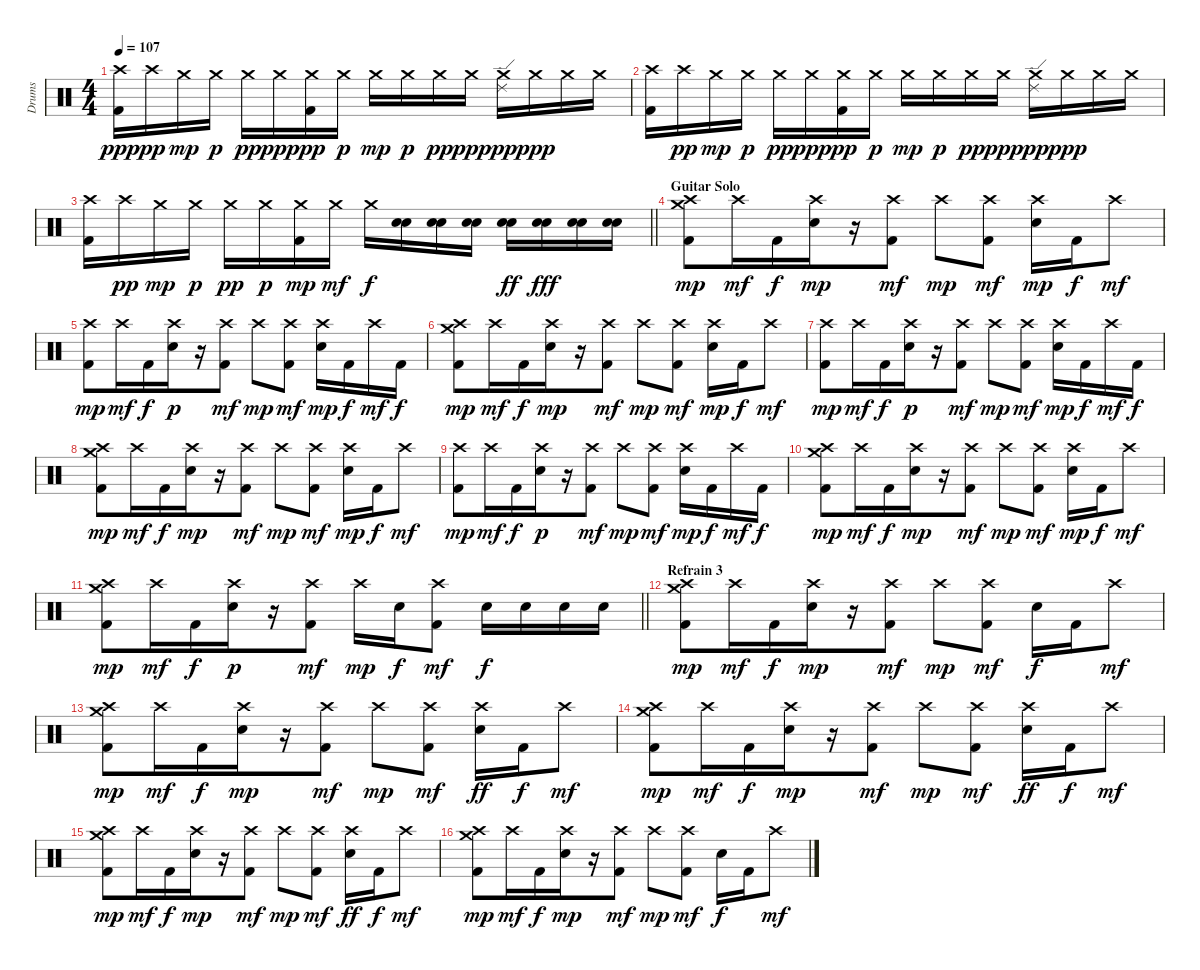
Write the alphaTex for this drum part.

\track ("Drums" "Drums") {instrument percussion}
\staff {score}
\articulation defaults
\ts (4 4)
\tempo 107
\clef neutral
\ks c
("Crash high (hit)" "Kick (hit) 2").16{dy ppp} "Crash high (hit)".16{dy pp} "Crash medium (hit)".16{dy mp} "Crash medium (hit)".16{dy p} "Crash medium (hit)".16{dy pp} "Crash medium (hit)".16{dy ppp} ("Crash medium (hit)" "Kick (hit) 2").16{dy pp} "Crash medium (hit)".16{dy p} "Crash medium (hit)".16{dy mp} "Crash medium (hit)".16{dy p} "Crash medium (hit)".16{dy pp} "Crash medium (hit)".16{dy ppp} ("Crash medium (hit)" "Ride (edge) 2").16{dy pp} "Crash medium (hit)".16{dy ppp} "Crash medium (hit)".16 "Crash medium (hit)".16 |
("Crash high (hit)" "Kick (hit) 2").16 "Crash high (hit)".16{dy pp} "Crash medium (hit)".16{dy mp} "Crash medium (hit)".16{dy p} "Crash medium (hit)".16{dy pp} "Crash medium (hit)".16{dy ppp} ("Crash medium (hit)" "Kick (hit) 2").16{dy pp} "Crash medium (hit)".16{dy p} "Crash medium (hit)".16{dy mp} "Crash medium (hit)".16{dy p} "Crash medium (hit)".16{dy pp} "Crash medium (hit)".16{dy ppp} ("Crash medium (hit)" "Ride (edge) 2").16{dy pp} "Crash medium (hit)".16{dy ppp} "Crash medium (hit)".16 "Crash medium (hit)".16 |
\barLineRight lightlight
("Crash high (hit)" "Kick (hit) 2").16 "Crash high (hit)".16{dy pp} "Crash medium (hit)".16{dy mp} "Crash medium (hit)".16{dy p} "Crash medium (hit)".16{dy pp} "Crash medium (hit)".16{dy p} ("Crash medium (hit)" "Kick (hit) 2").16{dy mp} "Crash medium (hit)".16{dy mf} "Crash medium (hit)".16{dy f} ("Electric Snare (hit)" "Electric Snare (hit)").16 ("Electric Snare (hit)" "Electric Snare (hit)").16 ("Electric Snare (hit)" "Electric Snare (hit)").16 ("Electric Snare (hit)" "Electric Snare (hit)").16{dy ff} ("Electric Snare (hit)" "Electric Snare (hit)").16{dy fff} ("Electric Snare (hit)" "Electric Snare (hit)").16 ("Electric Snare (hit)" "Electric Snare (hit)").16 |
\section ("" "Guitar Solo")
("Crash medium (hit)" "Crash high (hit)" "Kick (hit) 2").8{dy mp} "Crash high (hit)".16{dy mf} "Kick (hit) 2".16{dy f beam merge} ("Crash high (hit)" "Electric Snare (hit)").16{dy mp} r.16 ("Crash high (hit)" "Kick (hit) 2").8{dy mf} "Crash high (hit)".8{dy mp} ("Crash high (hit)" "Kick (hit) 2").8{dy mf} ("Crash high (hit)" "Electric Snare (hit)").16{dy mp} "Kick (hit) 2".16{dy f} "Crash high (hit)".8{dy mf} |
("Crash high (hit)" "Kick (hit) 2").8{dy mp} "Crash high (hit)".16{dy mf} "Kick (hit) 2".16{dy f beam merge} ("Crash high (hit)" "Electric Snare (hit)").16{dy p} r.16 ("Crash high (hit)" "Kick (hit) 2").8{dy mf} "Crash high (hit)".8{dy mp} ("Crash high (hit)" "Kick (hit) 2").8{dy mf} ("Crash high (hit)" "Electric Snare (hit)").16{dy mp} "Kick (hit) 2".16{dy f} "Crash high (hit)".16{dy mf} "Kick (hit) 2".16{dy f} |
("Crash medium (hit)" "Crash high (hit)" "Kick (hit) 2").8{dy mp} "Crash high (hit)".16{dy mf} "Kick (hit) 2".16{dy f beam merge} ("Crash high (hit)" "Electric Snare (hit)").16{dy mp} r.16 ("Crash high (hit)" "Kick (hit) 2").8{dy mf} "Crash high (hit)".8{dy mp} ("Crash high (hit)" "Kick (hit) 2").8{dy mf} ("Crash high (hit)" "Electric Snare (hit)").16{dy mp} "Kick (hit) 2".16{dy f} "Crash high (hit)".8{dy mf} |
("Crash high (hit)" "Kick (hit) 2").8{dy mp} "Crash high (hit)".16{dy mf} "Kick (hit) 2".16{dy f beam merge} ("Crash high (hit)" "Electric Snare (hit)").16{dy p} r.16 ("Crash high (hit)" "Kick (hit) 2").8{dy mf} "Crash high (hit)".8{dy mp} ("Crash high (hit)" "Kick (hit) 2").8{dy mf} ("Crash high (hit)" "Electric Snare (hit)").16{dy mp} "Kick (hit) 2".16{dy f} "Crash high (hit)".16{dy mf} "Kick (hit) 2".16{dy f} |
("Crash medium (hit)" "Crash high (hit)" "Kick (hit) 2").8{dy mp} "Crash high (hit)".16{dy mf} "Kick (hit) 2".16{dy f beam merge} ("Crash high (hit)" "Electric Snare (hit)").16{dy mp} r.16 ("Crash high (hit)" "Kick (hit) 2").8{dy mf} "Crash high (hit)".8{dy mp} ("Crash high (hit)" "Kick (hit) 2").8{dy mf} ("Crash high (hit)" "Electric Snare (hit)").16{dy mp} "Kick (hit) 2".16{dy f} "Crash high (hit)".8{dy mf} |
("Crash high (hit)" "Kick (hit) 2").8{dy mp} "Crash high (hit)".16{dy mf} "Kick (hit) 2".16{dy f beam merge} ("Crash high (hit)" "Electric Snare (hit)").16{dy p} r.16 ("Crash high (hit)" "Kick (hit) 2").8{dy mf} "Crash high (hit)".8{dy mp} ("Crash high (hit)" "Kick (hit) 2").8{dy mf} ("Crash high (hit)" "Electric Snare (hit)").16{dy mp} "Kick (hit) 2".16{dy f} "Crash high (hit)".16{dy mf} "Kick (hit) 2".16{dy f} |
("Crash medium (hit)" "Crash high (hit)" "Kick (hit) 2").8{dy mp} "Crash high (hit)".16{dy mf} "Kick (hit) 2".16{dy f beam merge} ("Crash high (hit)" "Electric Snare (hit)").16{dy mp} r.16 ("Crash high (hit)" "Kick (hit) 2").8{dy mf} "Crash high (hit)".8{dy mp} ("Crash high (hit)" "Kick (hit) 2").8{dy mf} ("Crash high (hit)" "Electric Snare (hit)").16{dy mp} "Kick (hit) 2".16{dy f} "Crash high (hit)".8{dy mf} |
\barLineRight lightlight
("Crash medium (hit)" "Crash high (hit)" "Kick (hit) 2").8{dy mp} "Crash high (hit)".16{dy mf} "Kick (hit) 2".16{dy f beam merge} ("Crash high (hit)" "Electric Snare (hit)").16{dy p} r.16 ("Crash high (hit)" "Kick (hit) 2").8{dy mf} "Crash high (hit)".16{dy mp} "Electric Snare (hit)".16{dy f} ("Crash high (hit)" "Kick (hit) 2").8{dy mf} "Electric Snare (hit)".16{dy f} "Electric Snare (hit)".16 "Electric Snare (hit)".16 "Electric Snare (hit)".16 |
\section ("" "Refrain 3")
("Crash medium (hit)" "Crash high (hit)" "Kick (hit) 2").8{dy mp} "Crash high (hit)".16{dy mf} "Kick (hit) 2".16{dy f beam merge} ("Crash high (hit)" "Electric Snare (hit)").16{dy mp} r.16 ("Crash high (hit)" "Kick (hit) 2").8{dy mf} "Crash high (hit)".8{dy mp} ("Crash high (hit)" "Kick (hit) 2").8{dy mf} "Electric Snare (hit)".16{dy f} "Kick (hit) 2".16 "Crash high (hit)".8{dy mf} |
("Crash medium (hit)" "Crash high (hit)" "Kick (hit) 2").8{dy mp} "Crash high (hit)".16{dy mf} "Kick (hit) 2".16{dy f beam merge} ("Crash high (hit)" "Electric Snare (hit)").16{dy mp} r.16 ("Crash high (hit)" "Kick (hit) 2").8{dy mf} "Crash high (hit)".8{dy mp} ("Crash high (hit)" "Kick (hit) 2").8{dy mf} ("Crash high (hit)" "Electric Snare (hit)").16{dy ff} "Kick (hit) 2".16{dy f} "Crash high (hit)".8{dy mf} |
("Crash medium (hit)" "Crash high (hit)" "Kick (hit) 2").8{dy mp} "Crash high (hit)".16{dy mf} "Kick (hit) 2".16{dy f beam merge} ("Crash high (hit)" "Electric Snare (hit)").16{dy mp} r.16 ("Crash high (hit)" "Kick (hit) 2").8{dy mf} "Crash high (hit)".8{dy mp} ("Crash high (hit)" "Kick (hit) 2").8{dy mf} ("Crash high (hit)" "Electric Snare (hit)").16{dy ff} "Kick (hit) 2".16{dy f} "Crash high (hit)".8{dy mf} |
("Crash medium (hit)" "Crash high (hit)" "Kick (hit) 2").8{dy mp} "Crash high (hit)".16{dy mf} "Kick (hit) 2".16{dy f beam merge} ("Crash high (hit)" "Electric Snare (hit)").16{dy mp} r.16 ("Crash high (hit)" "Kick (hit) 2").8{dy mf} "Crash high (hit)".8{dy mp} ("Crash high (hit)" "Kick (hit) 2").8{dy mf} ("Crash high (hit)" "Electric Snare (hit)").16{dy ff} "Kick (hit) 2".16{dy f} "Crash high (hit)".8{dy mf} |
("Crash medium (hit)" "Crash high (hit)" "Kick (hit) 2").8{dy mp} "Crash high (hit)".16{dy mf} "Kick (hit) 2".16{dy f beam merge} ("Crash high (hit)" "Electric Snare (hit)").16{dy mp} r.16 ("Crash high (hit)" "Kick (hit) 2").8{dy mf} "Crash high (hit)".8{dy mp} ("Crash high (hit)" "Kick (hit) 2").8{dy mf} "Electric Snare (hit)".16{dy f} "Kick (hit) 2".16 "Crash high (hit)".8{dy mf}
